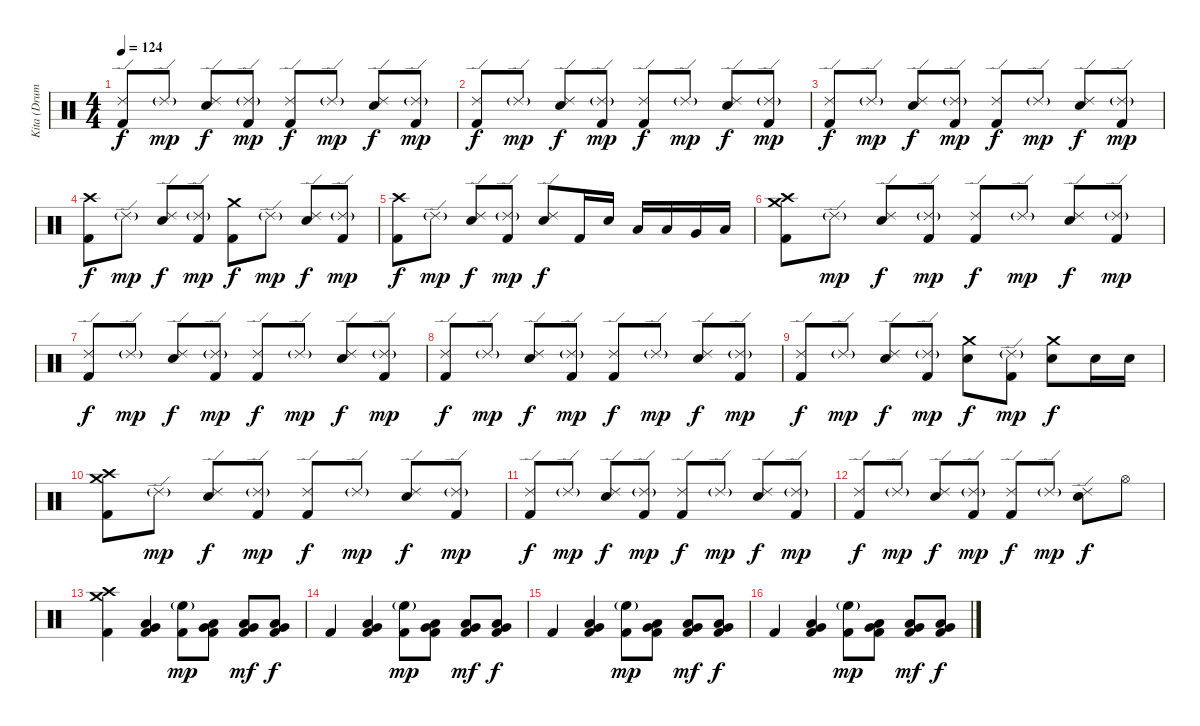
\track ("Kita (Drums)" "Kita (Drum") {instrument percussion}
\staff {score}
\articulation defaults
\ts (4 4)
\tempo 124
\clef neutral
\ks c
("Ride (edge) 2" "Kick (hit) 2").8{dy f} "Ride (edge) 2"{g}.8{dy mp} ("Ride (edge) 2" "Electric Snare (hit)").8{dy f} ("Ride (edge) 2"{g} "Kick (hit) 2").8{dy mp} ("Ride (edge) 2" "Kick (hit) 2").8{dy f} "Ride (edge) 2"{g}.8{dy mp} ("Ride (edge) 2" "Electric Snare (hit)").8{dy f} ("Ride (edge) 2"{g} "Kick (hit) 2").8{dy mp} |
("Ride (edge) 2" "Kick (hit) 2").8{dy f} "Ride (edge) 2"{g}.8{dy mp} ("Ride (edge) 2" "Electric Snare (hit)").8{dy f} ("Ride (edge) 2"{g} "Kick (hit) 2").8{dy mp} ("Ride (edge) 2" "Kick (hit) 2").8{dy f} "Ride (edge) 2"{g}.8{dy mp} ("Ride (edge) 2" "Electric Snare (hit)").8{dy f} ("Ride (edge) 2"{g} "Kick (hit) 2").8{dy mp} |
("Ride (edge) 2" "Kick (hit) 2").8{dy f} "Ride (edge) 2"{g}.8{dy mp} ("Ride (edge) 2" "Electric Snare (hit)").8{dy f} ("Ride (edge) 2"{g} "Kick (hit) 2").8{dy mp} ("Ride (edge) 2" "Kick (hit) 2").8{dy f} "Ride (edge) 2"{g}.8{dy mp} ("Ride (edge) 2" "Electric Snare (hit)").8{dy f} ("Ride (edge) 2"{g} "Kick (hit) 2").8{dy mp} |
("Crash high (hit)" "Kick (hit) 2").8{dy f} "Ride (edge) 2"{g}.8{dy mp} ("Ride (edge) 2" "Electric Snare (hit)").8{dy f} ("Ride (edge) 2"{g} "Kick (hit) 2").8{dy mp} ("Crash medium (hit)" "Kick (hit) 2").8{dy f} "Ride (edge) 2"{g}.8{dy mp} ("Ride (edge) 2" "Electric Snare (hit)").8{dy f} ("Ride (edge) 2"{g} "Kick (hit) 2").8{dy mp} |
("Crash high (hit)" "Kick (hit) 2").8{dy f} "Ride (edge) 2"{g}.8{dy mp} ("Ride (edge) 2" "Electric Snare (hit)").8{dy f} ("Ride (edge) 2"{g} "Kick (hit) 2").8{dy mp} ("Ride (edge) 2" "Electric Snare (hit)").8{dy f} "Kick (hit) 2".16 "Electric Snare (hit)".16 "Low Tom (hit)".16 "Low Tom (hit)".16 "Very Low Tom (hit)".16 "Low Floor Tom (hit)".16 |
("Crash medium (hit)" "Crash high (hit)" "Kick (hit) 2").8 "Ride (edge) 2"{g}.8{dy mp} ("Ride (edge) 2" "Electric Snare (hit)").8{dy f} ("Ride (edge) 2"{g} "Kick (hit) 2").8{dy mp} ("Ride (edge) 2" "Kick (hit) 2").8{dy f} "Ride (edge) 2"{g}.8{dy mp} ("Ride (edge) 2" "Electric Snare (hit)").8{dy f} ("Ride (edge) 2"{g} "Kick (hit) 2").8{dy mp} |
("Ride (edge) 2" "Kick (hit) 2").8{dy f} "Ride (edge) 2"{g}.8{dy mp} ("Ride (edge) 2" "Electric Snare (hit)").8{dy f} ("Ride (edge) 2"{g} "Kick (hit) 2").8{dy mp} ("Ride (edge) 2" "Kick (hit) 2").8{dy f} "Ride (edge) 2"{g}.8{dy mp} ("Ride (edge) 2" "Electric Snare (hit)").8{dy f} ("Ride (edge) 2"{g} "Kick (hit) 2").8{dy mp} |
("Ride (edge) 2" "Kick (hit) 2").8{dy f} "Ride (edge) 2"{g}.8{dy mp} ("Ride (edge) 2" "Electric Snare (hit)").8{dy f} ("Ride (edge) 2"{g} "Kick (hit) 2").8{dy mp} ("Ride (edge) 2" "Kick (hit) 2").8{dy f} "Ride (edge) 2"{g}.8{dy mp} ("Ride (edge) 2" "Electric Snare (hit)").8{dy f} ("Ride (edge) 2"{g} "Kick (hit) 2").8{dy mp} |
("Ride (edge) 2" "Kick (hit) 2").8{dy f} "Ride (edge) 2"{g}.8{dy mp} ("Ride (edge) 2" "Electric Snare (hit)").8{dy f} ("Ride (edge) 2"{g} "Kick (hit) 2").8{dy mp} ("Crash medium (hit)" "Electric Snare (hit)").8{dy f} ("Ride (edge) 2"{g} "Kick (hit) 2").8{dy mp} ("Crash medium (hit)" "Electric Snare (hit)").8{dy f} "Electric Snare (hit)".16 "Electric Snare (hit)".16 |
("Crash medium (hit)" "Crash high (hit)" "Kick (hit) 2").8 "Ride (edge) 2"{g}.8{dy mp} ("Ride (edge) 2" "Electric Snare (hit)").8{dy f} ("Ride (edge) 2"{g} "Kick (hit) 2").8{dy mp} ("Ride (edge) 2" "Kick (hit) 2").8{dy f} "Ride (edge) 2"{g}.8{dy mp} ("Ride (edge) 2" "Electric Snare (hit)").8{dy f} ("Ride (edge) 2"{g} "Kick (hit) 2").8{dy mp} |
("Ride (edge) 2" "Kick (hit) 2").8{dy f} "Ride (edge) 2"{g}.8{dy mp} ("Ride (edge) 2" "Electric Snare (hit)").8{dy f} ("Ride (edge) 2"{g} "Kick (hit) 2").8{dy mp} ("Ride (edge) 2" "Kick (hit) 2").8{dy f} "Ride (edge) 2"{g}.8{dy mp} ("Ride (edge) 2" "Electric Snare (hit)").8{dy f} ("Ride (edge) 2"{g} "Kick (hit) 2").8{dy mp} |
("Ride (edge) 2" "Kick (hit) 2").8{dy f} "Ride (edge) 2"{g}.8{dy mp} ("Ride (edge) 2" "Electric Snare (hit)").8{dy f} ("Ride (edge) 2"{g} "Kick (hit) 2").8{dy mp} ("Ride (edge) 2" "Kick (hit) 2").8{dy f} "Ride (edge) 2"{g}.8{dy mp} ("Ride (edge) 2" "Electric Snare (hit)").8{dy f} "Hi-Hat (open)".8 |
("Crash medium (hit)" "Crash high (hit)" "Kick (hit) 2").4 ("Very Low Tom (hit)" "Low Tom (hit)" "Kick (hit) 2").4 ("High Floor Tom (hit)"{g} "Kick (hit) 2").8{dy mp} ("Very Low Tom (hit)" "Low Tom (hit)" "Kick (hit) 2").8 ("Very Low Tom (hit)" "Low Tom (hit)" "Kick (hit) 2").8{dy mf} ("Low Floor Tom (hit)" "Very Low Tom (hit)" "Kick (hit) 2").8{dy f} |
"Kick (hit) 2".4 ("Very Low Tom (hit)" "Low Tom (hit)" "Kick (hit) 2").4 ("High Floor Tom (hit)"{g} "Kick (hit) 2").8{dy mp} ("Very Low Tom (hit)" "Low Tom (hit)" "Kick (hit) 2").8 ("Very Low Tom (hit)" "Low Tom (hit)" "Kick (hit) 2").8{dy mf} ("Low Floor Tom (hit)" "Very Low Tom (hit)" "Kick (hit) 2").8{dy f} |
"Kick (hit) 2".4 ("Very Low Tom (hit)" "Low Tom (hit)" "Kick (hit) 2").4 ("High Floor Tom (hit)"{g} "Kick (hit) 2").8{dy mp} ("Very Low Tom (hit)" "Low Tom (hit)" "Kick (hit) 2").8 ("Very Low Tom (hit)" "Low Tom (hit)" "Kick (hit) 2").8{dy mf} ("Low Floor Tom (hit)" "Very Low Tom (hit)" "Kick (hit) 2").8{dy f} |
"Kick (hit) 2".4 ("Very Low Tom (hit)" "Low Tom (hit)" "Kick (hit) 2").4 ("High Floor Tom (hit)"{g} "Kick (hit) 2").8{dy mp} ("Very Low Tom (hit)" "Low Tom (hit)" "Kick (hit) 2").8 ("Very Low Tom (hit)" "Low Tom (hit)" "Kick (hit) 2").8{dy mf} ("Low Floor Tom (hit)" "Very Low Tom (hit)" "Kick (hit) 2").8{dy f}
